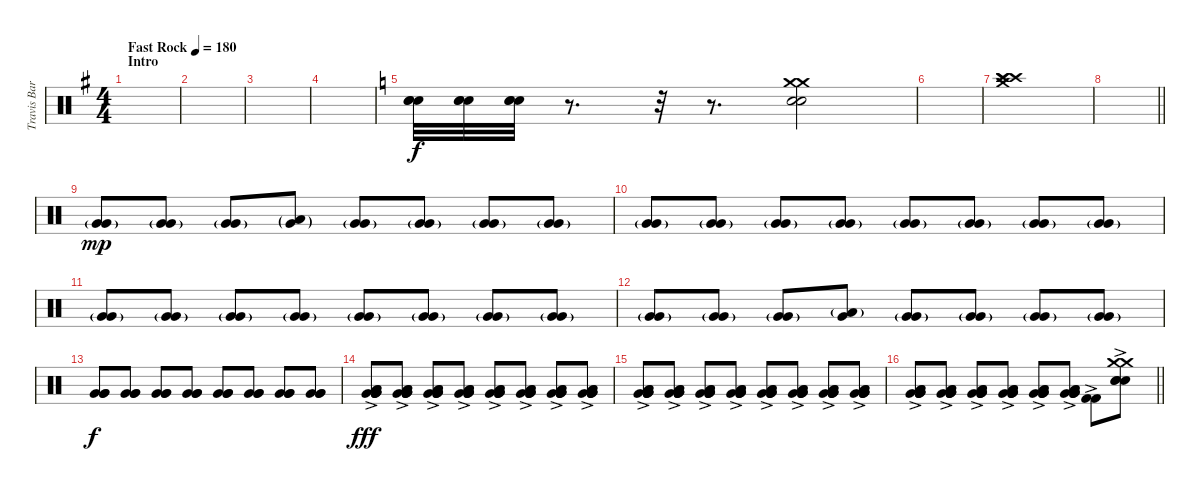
\track ("Travis Barker" "Travis Bar") {instrument percussion}
\staff {score}
\articulation defaults
\ts (4 4)
\section ("" "Intro")
\tempo (180 "Fast Rock")
\clef neutral
\ks g
|
|
|
|
\ks c
("Electric Snare (hit)" "Electric Snare (hit)" "Electric Snare (hit)").32{volume 16 balance 8} ("Electric Snare (hit)" "Electric Snare (hit)" "Electric Snare (hit)").32 ("Electric Snare (hit)" "Electric Snare (hit)" "Electric Snare (hit)").32 r.8{d} r.32 r.8{d} ("Crash medium (hit)" "Crash medium (hit)" "Electric Snare (hit)" "Electric Snare (hit)").2 |
|
("Crash high (hit)" "Crash high (hit)" "Crash high (hit)" "Crash medium (hit)").1 |
\barLineRight lightlight
|
("Very Low Tom (hit)"{g} "Very Low Tom (hit)"{g}).8{dy mp} ("Very Low Tom (hit)"{g} "Very Low Tom (hit)"{g}).8 ("Very Low Tom (hit)"{g} "Very Low Tom (hit)"{g}).8 ("Very Low Tom (hit)"{g} "Low Floor Tom (hit)"{g}).8 ("Very Low Tom (hit)"{g} "Very Low Tom (hit)"{g}).8 ("Very Low Tom (hit)"{g} "Very Low Tom (hit)"{g}).8 ("Very Low Tom (hit)"{g} "Very Low Tom (hit)"{g}).8 ("Very Low Tom (hit)"{g} "Very Low Tom (hit)"{g}).8 |
("Very Low Tom (hit)"{g} "Very Low Tom (hit)"{g}).8 ("Very Low Tom (hit)"{g} "Very Low Tom (hit)"{g}).8 ("Very Low Tom (hit)"{g} "Very Low Tom (hit)"{g}).8 ("Very Low Tom (hit)"{g} "Very Low Tom (hit)"{g}).8 ("Very Low Tom (hit)"{g} "Very Low Tom (hit)"{g}).8 ("Very Low Tom (hit)"{g} "Very Low Tom (hit)"{g}).8 ("Very Low Tom (hit)"{g} "Very Low Tom (hit)"{g}).8 ("Very Low Tom (hit)"{g} "Very Low Tom (hit)"{g}).8 |
("Very Low Tom (hit)" "Very Low Tom (hit)"{g}).8 ("Very Low Tom (hit)" "Very Low Tom (hit)"{g}).8 ("Very Low Tom (hit)" "Very Low Tom (hit)"{g}).8 ("Very Low Tom (hit)" "Very Low Tom (hit)"{g}).8 ("Very Low Tom (hit)" "Very Low Tom (hit)"{g}).8 ("Very Low Tom (hit)" "Very Low Tom (hit)"{g}).8 ("Very Low Tom (hit)" "Very Low Tom (hit)"{g}).8 ("Very Low Tom (hit)" "Very Low Tom (hit)"{g}).8 |
("Very Low Tom (hit)" "Very Low Tom (hit)"{g}).8 ("Very Low Tom (hit)" "Very Low Tom (hit)"{g}).8 ("Very Low Tom (hit)" "Very Low Tom (hit)"{g}).8 ("Very Low Tom (hit)" "Low Floor Tom (hit)"{g}).8 ("Very Low Tom (hit)" "Very Low Tom (hit)"{g}).8 ("Very Low Tom (hit)" "Very Low Tom (hit)"{g}).8 ("Very Low Tom (hit)" "Very Low Tom (hit)"{g}).8 ("Very Low Tom (hit)" "Very Low Tom (hit)"{g}).8 |
("Very Low Tom (hit)" "Very Low Tom (hit)" "Very Low Tom (hit)").8{dy f} ("Very Low Tom (hit)" "Very Low Tom (hit)" "Very Low Tom (hit)").8 ("Very Low Tom (hit)" "Very Low Tom (hit)" "Very Low Tom (hit)").8 ("Very Low Tom (hit)" "Very Low Tom (hit)" "Very Low Tom (hit)").8 ("Very Low Tom (hit)" "Very Low Tom (hit)" "Very Low Tom (hit)").8 ("Very Low Tom (hit)" "Very Low Tom (hit)" "Very Low Tom (hit)").8 ("Very Low Tom (hit)" "Very Low Tom (hit)" "Very Low Tom (hit)").8 ("Very Low Tom (hit)" "Very Low Tom (hit)" "Very Low Tom (hit)").8 |
("Low Floor Tom (hit)"{ac} "Low Floor Tom (hit)"{ac} "Very Low Tom (hit)"{ac} "Very Low Tom (hit)"{ac} "Very Low Tom (hit)"{ac} "Very Low Tom (hit)"{ac}).8{dy fff} ("Low Floor Tom (hit)"{ac} "Low Floor Tom (hit)"{ac} "Very Low Tom (hit)"{ac} "Very Low Tom (hit)"{ac} "Very Low Tom (hit)"{ac} "Very Low Tom (hit)"{ac}).8 ("Low Floor Tom (hit)" "Low Floor Tom (hit)"{ac} "Very Low Tom (hit)"{ac} "Very Low Tom (hit)"{ac} "Very Low Tom (hit)"{ac} "Very Low Tom (hit)"{ac}).8 ("Low Floor Tom (hit)"{ac} "Low Floor Tom (hit)"{ac} "Very Low Tom (hit)"{ac} "Very Low Tom (hit)"{ac} "Very Low Tom (hit)"{ac} "Very Low Tom (hit)"{ac}).8 ("Low Floor Tom (hit)"{ac} "Low Floor Tom (hit)"{ac} "Very Low Tom (hit)"{ac} "Very Low Tom (hit)"{ac} "Very Low Tom (hit)"{ac} "Very Low Tom (hit)"{ac}).8 ("Low Floor Tom (hit)"{ac} "Low Floor Tom (hit)"{ac} "Very Low Tom (hit)"{ac} "Very Low Tom (hit)"{ac} "Very Low Tom (hit)"{ac} "Very Low Tom (hit)"{ac}).8 ("Low Floor Tom (hit)"{ac} "Low Floor Tom (hit)"{ac} "Very Low Tom (hit)"{ac} "Very Low Tom (hit)"{ac} "Very Low Tom (hit)" "Very Low Tom (hit)"{ac}).8 ("Low Floor Tom (hit)"{ac} "Low Floor Tom (hit)"{ac} "Very Low Tom (hit)"{ac} "Very Low Tom (hit)"{ac} "Very Low Tom (hit)"{ac} "Very Low Tom (hit)"{ac}).8 |
("Low Floor Tom (hit)"{ac} "Low Floor Tom (hit)"{ac} "Very Low Tom (hit)"{ac} "Very Low Tom (hit)"{ac} "Very Low Tom (hit)"{ac} "Very Low Tom (hit)"{ac}).8 ("Low Floor Tom (hit)"{ac} "Low Floor Tom (hit)"{ac} "Very Low Tom (hit)"{ac} "Very Low Tom (hit)"{ac} "Very Low Tom (hit)"{ac} "Very Low Tom (hit)"{ac}).8 ("Low Floor Tom (hit)"{ac} "Low Floor Tom (hit)"{ac} "Very Low Tom (hit)"{ac} "Very Low Tom (hit)"{ac} "Very Low Tom (hit)"{ac} "Very Low Tom (hit)"{ac}).8 ("Low Floor Tom (hit)"{ac} "Low Floor Tom (hit)"{ac} "Very Low Tom (hit)"{ac} "Very Low Tom (hit)"{ac} "Very Low Tom (hit)"{ac} "Very Low Tom (hit)"{ac}).8 ("Low Floor Tom (hit)"{ac} "Low Floor Tom (hit)"{ac} "Very Low Tom (hit)"{ac} "Very Low Tom (hit)"{ac} "Very Low Tom (hit)"{ac} "Very Low Tom (hit)"{ac}).8 ("Low Floor Tom (hit)"{ac} "Low Floor Tom (hit)"{ac} "Very Low Tom (hit)"{ac} "Very Low Tom (hit)"{ac} "Very Low Tom (hit)"{ac} "Very Low Tom (hit)"{ac}).8 ("Low Floor Tom (hit)"{ac} "Low Floor Tom (hit)"{ac} "Very Low Tom (hit)"{ac} "Very Low Tom (hit)"{ac} "Very Low Tom (hit)" "Very Low Tom (hit)"{ac}).8 ("Low Floor Tom (hit)"{ac} "Low Floor Tom (hit)"{ac} "Very Low Tom (hit)"{ac} "Very Low Tom (hit)"{ac} "Very Low Tom (hit)"{ac} "Very Low Tom (hit)"{ac}).8 |
\barLineRight lightlight
("Low Floor Tom (hit)"{ac} "Low Floor Tom (hit)"{ac} "Very Low Tom (hit)"{ac} "Very Low Tom (hit)"{ac} "Very Low Tom (hit)"{ac} "Very Low Tom (hit)"{ac}).8 ("Low Floor Tom (hit)"{ac} "Low Floor Tom (hit)"{ac} "Very Low Tom (hit)"{ac} "Very Low Tom (hit)"{ac} "Very Low Tom (hit)"{ac} "Very Low Tom (hit)"{ac}).8 ("Low Floor Tom (hit)" "Low Floor Tom (hit)"{ac} "Very Low Tom (hit)"{ac} "Very Low Tom (hit)"{ac} "Very Low Tom (hit)"{ac} "Very Low Tom (hit)"{ac}).8 ("Low Floor Tom (hit)"{ac} "Low Floor Tom (hit)"{ac} "Very Low Tom (hit)"{ac} "Very Low Tom (hit)"{ac} "Very Low Tom (hit)"{ac} "Very Low Tom (hit)"{ac}).8 ("Low Floor Tom (hit)"{ac} "Low Floor Tom (hit)"{ac} "Very Low Tom (hit)"{ac} "Very Low Tom (hit)"{ac} "Very Low Tom (hit)"{ac} "Very Low Tom (hit)"{ac}).8 ("Low Floor Tom (hit)"{ac} "Low Floor Tom (hit)"{ac} "Very Low Tom (hit)"{ac} "Very Low Tom (hit)"{ac} "Very Low Tom (hit)"{ac} "Very Low Tom (hit)"{ac}).8 ("Kick (hit) 2" "Kick (hit) 2"{ac}).8 ("Crash medium (hit)" "Crash medium (hit)" "Electric Snare (hit)" "Electric Snare (hit)" "Electric Snare (hit)"{ac}).8
